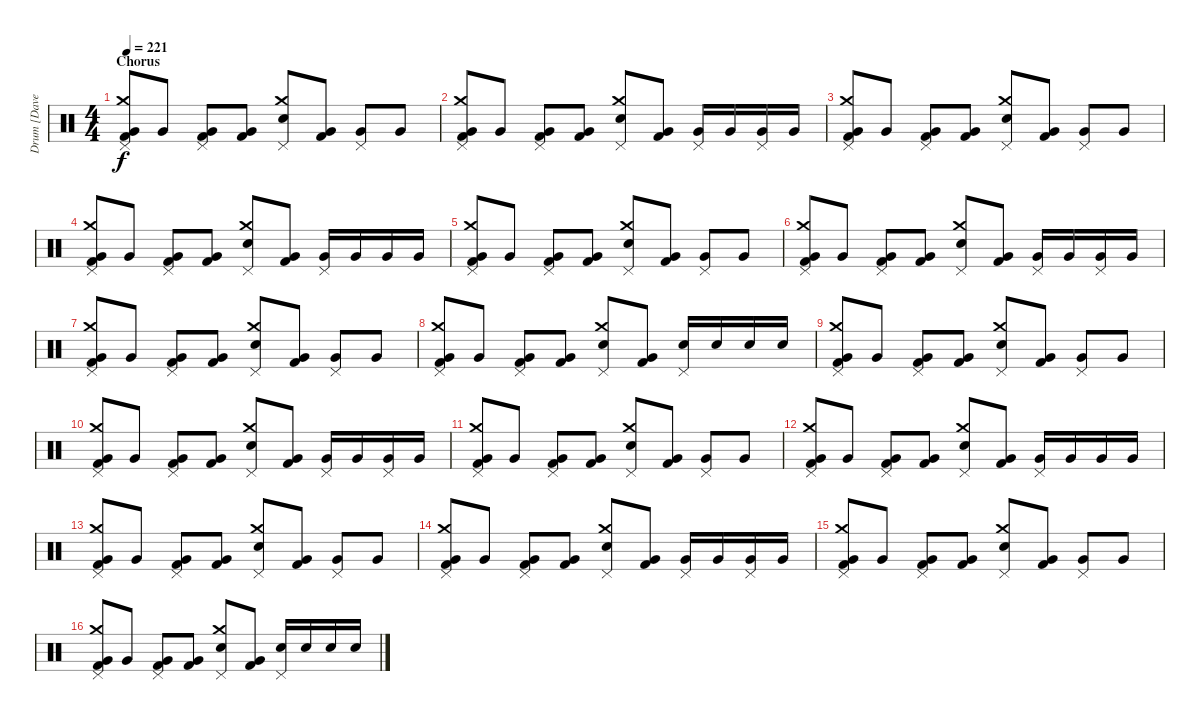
\track ("Drum [Dave Grohl]" "Drum [Dave") {instrument percussion bank 255}
\staff {score}
\articulation defaults
\ts (4 4)
\section ("" "Chorus")
\tempo 221
\clef neutral
\ks c
("Pedal Hi-Hat (hit)" "Crash medium (hit)" "Very Low Tom (hit)" "Kick (hit) 2").8{dy f} "Very Low Tom (hit)".8 ("Pedal Hi-Hat (hit)" "Very Low Tom (hit)" "Kick (hit) 2").8 ("Very Low Tom (hit)" "Kick (hit) 2").8 ("Pedal Hi-Hat (hit)" "Crash medium (hit)" "Snare (hit) 2").8 ("Very Low Tom (hit)" "Kick (hit) 2").8 ("Pedal Hi-Hat (hit)" "Very Low Tom (hit)").8 "Very Low Tom (hit)".8 |
("Pedal Hi-Hat (hit)" "Crash medium (hit)" "Very Low Tom (hit)" "Kick (hit) 2").8 "Very Low Tom (hit)".8 ("Pedal Hi-Hat (hit)" "Very Low Tom (hit)" "Kick (hit) 2").8 ("Very Low Tom (hit)" "Kick (hit) 2").8 ("Pedal Hi-Hat (hit)" "Crash medium (hit)" "Snare (hit) 2").8 ("Very Low Tom (hit)" "Kick (hit) 2").8 ("Pedal Hi-Hat (hit)" "Very Low Tom (hit)").16 "Very Low Tom (hit)".16 ("Pedal Hi-Hat (hit)" "Very Low Tom (hit)").16 "Very Low Tom (hit)".16 |
("Pedal Hi-Hat (hit)" "Crash medium (hit)" "Very Low Tom (hit)" "Kick (hit) 2").8 "Very Low Tom (hit)".8 ("Pedal Hi-Hat (hit)" "Very Low Tom (hit)" "Kick (hit) 2").8 ("Very Low Tom (hit)" "Kick (hit) 2").8 ("Pedal Hi-Hat (hit)" "Crash medium (hit)" "Snare (hit) 2").8 ("Very Low Tom (hit)" "Kick (hit) 2").8 ("Pedal Hi-Hat (hit)" "Very Low Tom (hit)").8 "Very Low Tom (hit)".8 |
("Pedal Hi-Hat (hit)" "Crash medium (hit)" "Very Low Tom (hit)" "Kick (hit) 2").8 "Very Low Tom (hit)".8 ("Pedal Hi-Hat (hit)" "Very Low Tom (hit)" "Kick (hit) 2").8 ("Very Low Tom (hit)" "Kick (hit) 2").8 ("Pedal Hi-Hat (hit)" "Crash medium (hit)" "Snare (hit) 2").8 ("Very Low Tom (hit)" "Kick (hit) 2").8 ("Pedal Hi-Hat (hit)" "Very Low Tom (hit)").16 "Very Low Tom (hit)".16 "Very Low Tom (hit)".16 "Very Low Tom (hit)".16 |
("Pedal Hi-Hat (hit)" "Crash medium (hit)" "Very Low Tom (hit)" "Kick (hit) 2").8 "Very Low Tom (hit)".8 ("Pedal Hi-Hat (hit)" "Very Low Tom (hit)" "Kick (hit) 2").8 ("Very Low Tom (hit)" "Kick (hit) 2").8 ("Pedal Hi-Hat (hit)" "Crash medium (hit)" "Snare (hit) 2").8 ("Very Low Tom (hit)" "Kick (hit) 2").8 ("Pedal Hi-Hat (hit)" "Very Low Tom (hit)").8 "Very Low Tom (hit)".8 |
("Pedal Hi-Hat (hit)" "Crash medium (hit)" "Very Low Tom (hit)" "Kick (hit) 2").8 "Very Low Tom (hit)".8 ("Pedal Hi-Hat (hit)" "Very Low Tom (hit)" "Kick (hit) 2").8 ("Very Low Tom (hit)" "Kick (hit) 2").8 ("Pedal Hi-Hat (hit)" "Crash medium (hit)" "Snare (hit) 2").8 ("Very Low Tom (hit)" "Kick (hit) 2").8 ("Pedal Hi-Hat (hit)" "Very Low Tom (hit)").16 "Very Low Tom (hit)".16 ("Pedal Hi-Hat (hit)" "Very Low Tom (hit)").16 "Very Low Tom (hit)".16 |
("Pedal Hi-Hat (hit)" "Crash medium (hit)" "Very Low Tom (hit)" "Kick (hit) 2").8 "Very Low Tom (hit)".8 ("Pedal Hi-Hat (hit)" "Very Low Tom (hit)" "Kick (hit) 2").8 ("Very Low Tom (hit)" "Kick (hit) 2").8 ("Pedal Hi-Hat (hit)" "Crash medium (hit)" "Snare (hit) 2").8 ("Very Low Tom (hit)" "Kick (hit) 2").8 ("Pedal Hi-Hat (hit)" "Very Low Tom (hit)").8 "Very Low Tom (hit)".8 |
("Pedal Hi-Hat (hit)" "Crash medium (hit)" "Very Low Tom (hit)" "Kick (hit) 2").8 "Very Low Tom (hit)".8 ("Pedal Hi-Hat (hit)" "Very Low Tom (hit)" "Kick (hit) 2").8 ("Very Low Tom (hit)" "Kick (hit) 2").8 ("Pedal Hi-Hat (hit)" "Crash medium (hit)" "Snare (hit) 2").8 ("Very Low Tom (hit)" "Kick (hit) 2").8 ("Pedal Hi-Hat (hit)" "Snare (hit) 2").16 "Snare (hit) 2".16 "Snare (hit) 2".16 "Snare (hit) 2".16 |
("Pedal Hi-Hat (hit)" "Crash medium (hit)" "Very Low Tom (hit)" "Kick (hit) 2").8 "Very Low Tom (hit)".8 ("Pedal Hi-Hat (hit)" "Very Low Tom (hit)" "Kick (hit) 2").8 ("Very Low Tom (hit)" "Kick (hit) 2").8 ("Pedal Hi-Hat (hit)" "Crash medium (hit)" "Snare (hit) 2").8 ("Very Low Tom (hit)" "Kick (hit) 2").8 ("Pedal Hi-Hat (hit)" "Very Low Tom (hit)").8 "Very Low Tom (hit)".8 |
("Pedal Hi-Hat (hit)" "Crash medium (hit)" "Very Low Tom (hit)" "Kick (hit) 2").8 "Very Low Tom (hit)".8 ("Pedal Hi-Hat (hit)" "Very Low Tom (hit)" "Kick (hit) 2").8 ("Very Low Tom (hit)" "Kick (hit) 2").8 ("Pedal Hi-Hat (hit)" "Crash medium (hit)" "Snare (hit) 2").8 ("Very Low Tom (hit)" "Kick (hit) 2").8 ("Pedal Hi-Hat (hit)" "Very Low Tom (hit)").16 "Very Low Tom (hit)".16 ("Pedal Hi-Hat (hit)" "Very Low Tom (hit)").16 "Very Low Tom (hit)".16 |
("Pedal Hi-Hat (hit)" "Crash medium (hit)" "Very Low Tom (hit)" "Kick (hit) 2").8 "Very Low Tom (hit)".8 ("Pedal Hi-Hat (hit)" "Very Low Tom (hit)" "Kick (hit) 2").8 ("Very Low Tom (hit)" "Kick (hit) 2").8 ("Pedal Hi-Hat (hit)" "Crash medium (hit)" "Snare (hit) 2").8 ("Very Low Tom (hit)" "Kick (hit) 2").8 ("Pedal Hi-Hat (hit)" "Very Low Tom (hit)").8 "Very Low Tom (hit)".8 |
("Pedal Hi-Hat (hit)" "Crash medium (hit)" "Very Low Tom (hit)" "Kick (hit) 2").8 "Very Low Tom (hit)".8 ("Pedal Hi-Hat (hit)" "Very Low Tom (hit)" "Kick (hit) 2").8 ("Very Low Tom (hit)" "Kick (hit) 2").8 ("Pedal Hi-Hat (hit)" "Crash medium (hit)" "Snare (hit) 2").8 ("Very Low Tom (hit)" "Kick (hit) 2").8 ("Pedal Hi-Hat (hit)" "Very Low Tom (hit)").16 "Very Low Tom (hit)".16 "Very Low Tom (hit)".16 "Very Low Tom (hit)".16 |
("Pedal Hi-Hat (hit)" "Crash medium (hit)" "Very Low Tom (hit)" "Kick (hit) 2").8 "Very Low Tom (hit)".8 ("Pedal Hi-Hat (hit)" "Very Low Tom (hit)" "Kick (hit) 2").8 ("Very Low Tom (hit)" "Kick (hit) 2").8 ("Pedal Hi-Hat (hit)" "Crash medium (hit)" "Snare (hit) 2").8 ("Very Low Tom (hit)" "Kick (hit) 2").8 ("Pedal Hi-Hat (hit)" "Very Low Tom (hit)").8 "Very Low Tom (hit)".8 |
("Pedal Hi-Hat (hit)" "Crash medium (hit)" "Very Low Tom (hit)" "Kick (hit) 2").8 "Very Low Tom (hit)".8 ("Pedal Hi-Hat (hit)" "Very Low Tom (hit)" "Kick (hit) 2").8 ("Very Low Tom (hit)" "Kick (hit) 2").8 ("Pedal Hi-Hat (hit)" "Crash medium (hit)" "Snare (hit) 2").8 ("Very Low Tom (hit)" "Kick (hit) 2").8 ("Pedal Hi-Hat (hit)" "Very Low Tom (hit)").16 "Very Low Tom (hit)".16 ("Pedal Hi-Hat (hit)" "Very Low Tom (hit)").16 "Very Low Tom (hit)".16 |
("Pedal Hi-Hat (hit)" "Crash medium (hit)" "Very Low Tom (hit)" "Kick (hit) 2").8 "Very Low Tom (hit)".8 ("Pedal Hi-Hat (hit)" "Very Low Tom (hit)" "Kick (hit) 2").8 ("Very Low Tom (hit)" "Kick (hit) 2").8 ("Pedal Hi-Hat (hit)" "Crash medium (hit)" "Snare (hit) 2").8 ("Very Low Tom (hit)" "Kick (hit) 2").8 ("Pedal Hi-Hat (hit)" "Very Low Tom (hit)").8 "Very Low Tom (hit)".8 |
("Pedal Hi-Hat (hit)" "Crash medium (hit)" "Very Low Tom (hit)" "Kick (hit) 2").8 "Very Low Tom (hit)".8 ("Pedal Hi-Hat (hit)" "Very Low Tom (hit)" "Kick (hit) 2").8 ("Very Low Tom (hit)" "Kick (hit) 2").8 ("Pedal Hi-Hat (hit)" "Crash medium (hit)" "Snare (hit) 2").8 ("Very Low Tom (hit)" "Kick (hit) 2").8 ("Pedal Hi-Hat (hit)" "Snare (hit) 2").16 "Snare (hit) 2".16 "Snare (hit) 2".16 "Snare (hit) 2".16
